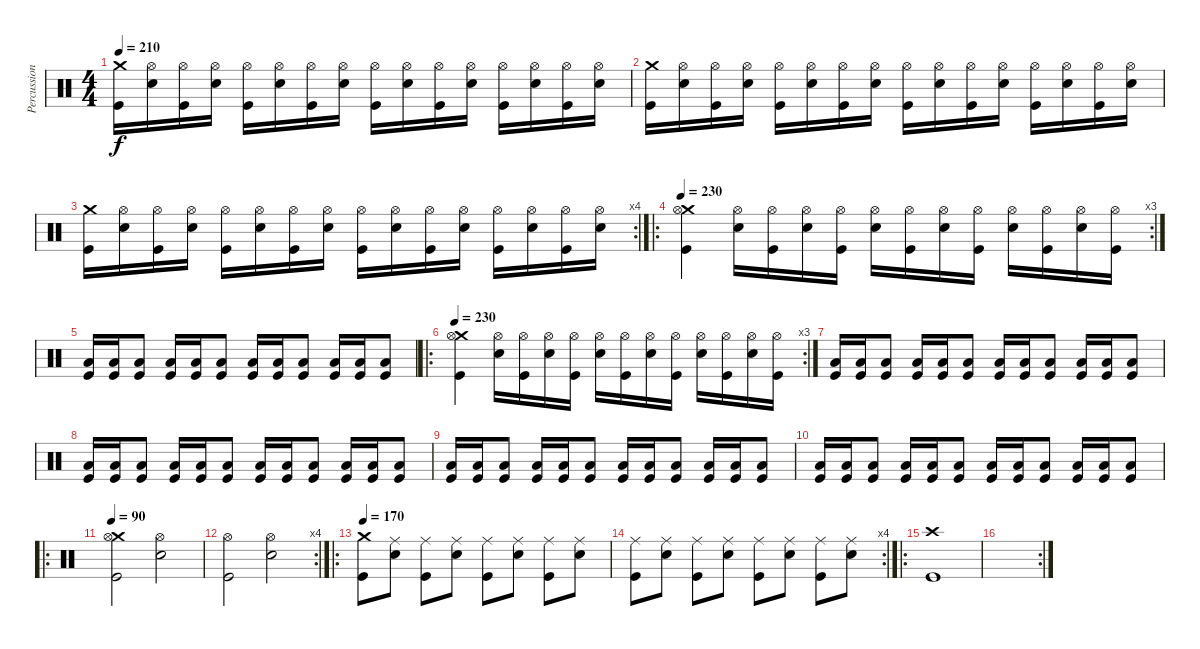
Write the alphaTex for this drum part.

\track ("Percussion" "Percussion") {instrument percussion}
\staff {score}
\articulation defaults
\ts (4 4)
\tempo 210
\clef neutral
\ks c
("Crash medium (hit)" "Kick (hit)").16{dy f} ("Hi-Hat (open)" "Electric Snare (hit)").16 ("Hi-Hat (open)" "Kick (hit)").16 ("Hi-Hat (open)" "Electric Snare (hit)").16 ("Hi-Hat (open)" "Kick (hit)").16 ("Hi-Hat (open)" "Electric Snare (hit)").16 ("Hi-Hat (open)" "Kick (hit)").16 ("Hi-Hat (open)" "Electric Snare (hit)").16 ("Hi-Hat (open)" "Kick (hit)").16 ("Hi-Hat (open)" "Electric Snare (hit)").16 ("Hi-Hat (open)" "Kick (hit)").16 ("Hi-Hat (open)" "Electric Snare (hit)").16 ("Hi-Hat (open)" "Kick (hit)").16 ("Hi-Hat (open)" "Electric Snare (hit)").16 ("Hi-Hat (open)" "Kick (hit)").16 ("Hi-Hat (open)" "Electric Snare (hit)").16 |
("Crash medium (hit)" "Kick (hit)").16 ("Hi-Hat (open)" "Electric Snare (hit)").16 ("Hi-Hat (open)" "Kick (hit)").16 ("Hi-Hat (open)" "Electric Snare (hit)").16 ("Hi-Hat (open)" "Kick (hit)").16 ("Hi-Hat (open)" "Electric Snare (hit)").16 ("Hi-Hat (open)" "Kick (hit)").16 ("Hi-Hat (open)" "Electric Snare (hit)").16 ("Hi-Hat (open)" "Kick (hit)").16 ("Hi-Hat (open)" "Electric Snare (hit)").16 ("Hi-Hat (open)" "Kick (hit)").16 ("Hi-Hat (open)" "Electric Snare (hit)").16 ("Hi-Hat (open)" "Kick (hit)").16 ("Hi-Hat (open)" "Electric Snare (hit)").16 ("Hi-Hat (open)" "Kick (hit)").16 ("Hi-Hat (open)" "Electric Snare (hit)").16 |
\rc 4
("Crash medium (hit)" "Kick (hit)").16 ("Hi-Hat (open)" "Electric Snare (hit)").16 ("Hi-Hat (open)" "Kick (hit)").16 ("Hi-Hat (open)" "Electric Snare (hit)").16 ("Hi-Hat (open)" "Kick (hit)").16 ("Hi-Hat (open)" "Electric Snare (hit)").16 ("Hi-Hat (open)" "Kick (hit)").16 ("Hi-Hat (open)" "Electric Snare (hit)").16 ("Hi-Hat (open)" "Kick (hit)").16 ("Hi-Hat (open)" "Electric Snare (hit)").16 ("Hi-Hat (open)" "Kick (hit)").16 ("Hi-Hat (open)" "Electric Snare (hit)").16 ("Hi-Hat (open)" "Kick (hit)").16 ("Hi-Hat (open)" "Electric Snare (hit)").16 ("Hi-Hat (open)" "Kick (hit)").16 ("Hi-Hat (open)" "Electric Snare (hit)").16 |
\ro
\rc 3
\tempo 230
("Crash medium (hit)" "Hi-Hat (open)" "Kick (hit)").4 ("Hi-Hat (open)" "Electric Snare (hit)").16 ("Hi-Hat (open)" "Kick (hit)").16 ("Hi-Hat (open)" "Electric Snare (hit)").16 ("Hi-Hat (open)" "Kick (hit)").16 ("Hi-Hat (open)" "Electric Snare (hit)").16 ("Hi-Hat (open)" "Kick (hit)").16 ("Hi-Hat (open)" "Electric Snare (hit)").16 ("Hi-Hat (open)" "Kick (hit)").16 ("Hi-Hat (open)" "Electric Snare (hit)").16 ("Hi-Hat (open)" "Kick (hit)").16 ("Hi-Hat (open)" "Electric Snare (hit)").16 ("Hi-Hat (open)" "Kick (hit)").16 |
("Kick (hit)" "Low Floor Tom (hit)").16 ("Kick (hit)" "Low Floor Tom (hit)").16 ("Kick (hit)" "Low Floor Tom (hit)").8 ("Kick (hit)" "Low Floor Tom (hit)").16 ("Kick (hit)" "Low Floor Tom (hit)").16 ("Kick (hit)" "Low Floor Tom (hit)").8 ("Kick (hit)" "Low Floor Tom (hit)").16 ("Kick (hit)" "Low Floor Tom (hit)").16 ("Kick (hit)" "Low Floor Tom (hit)").8 ("Kick (hit)" "Low Floor Tom (hit)").16 ("Kick (hit)" "Low Floor Tom (hit)").16 ("Kick (hit)" "Low Floor Tom (hit)").8 |
\ro
\rc 3
\tempo 230
("Crash medium (hit)" "Hi-Hat (open)" "Kick (hit)").4 ("Hi-Hat (open)" "Electric Snare (hit)").16 ("Hi-Hat (open)" "Kick (hit)").16 ("Hi-Hat (open)" "Electric Snare (hit)").16 ("Hi-Hat (open)" "Kick (hit)").16 ("Hi-Hat (open)" "Electric Snare (hit)").16 ("Hi-Hat (open)" "Kick (hit)").16 ("Hi-Hat (open)" "Electric Snare (hit)").16 ("Hi-Hat (open)" "Kick (hit)").16 ("Hi-Hat (open)" "Electric Snare (hit)").16 ("Hi-Hat (open)" "Kick (hit)").16 ("Hi-Hat (open)" "Electric Snare (hit)").16 ("Hi-Hat (open)" "Kick (hit)").16 |
("Kick (hit)" "Low Floor Tom (hit)").16 ("Kick (hit)" "Low Floor Tom (hit)").16 ("Kick (hit)" "Low Floor Tom (hit)").8 ("Kick (hit)" "Low Floor Tom (hit)").16 ("Kick (hit)" "Low Floor Tom (hit)").16 ("Kick (hit)" "Low Floor Tom (hit)").8 ("Kick (hit)" "Low Floor Tom (hit)").16 ("Kick (hit)" "Low Floor Tom (hit)").16 ("Kick (hit)" "Low Floor Tom (hit)").8 ("Kick (hit)" "Low Floor Tom (hit)").16 ("Kick (hit)" "Low Floor Tom (hit)").16 ("Kick (hit)" "Low Floor Tom (hit)").8 |
("Kick (hit)" "Low Floor Tom (hit)").16 ("Kick (hit)" "Low Floor Tom (hit)").16 ("Kick (hit)" "Low Floor Tom (hit)").8 ("Kick (hit)" "Low Floor Tom (hit)").16 ("Kick (hit)" "Low Floor Tom (hit)").16 ("Kick (hit)" "Low Floor Tom (hit)").8 ("Kick (hit)" "Low Floor Tom (hit)").16 ("Kick (hit)" "Low Floor Tom (hit)").16 ("Kick (hit)" "Low Floor Tom (hit)").8 ("Kick (hit)" "Low Floor Tom (hit)").16 ("Kick (hit)" "Low Floor Tom (hit)").16 ("Kick (hit)" "Low Floor Tom (hit)").8 |
("Kick (hit)" "Low Floor Tom (hit)").16 ("Kick (hit)" "Low Floor Tom (hit)").16 ("Kick (hit)" "Low Floor Tom (hit)").8 ("Kick (hit)" "Low Floor Tom (hit)").16 ("Kick (hit)" "Low Floor Tom (hit)").16 ("Kick (hit)" "Low Floor Tom (hit)").8 ("Kick (hit)" "Low Floor Tom (hit)").16 ("Kick (hit)" "Low Floor Tom (hit)").16 ("Kick (hit)" "Low Floor Tom (hit)").8 ("Kick (hit)" "Low Floor Tom (hit)").16 ("Kick (hit)" "Low Floor Tom (hit)").16 ("Kick (hit)" "Low Floor Tom (hit)").8 |
("Kick (hit)" "Low Floor Tom (hit)").16 ("Kick (hit)" "Low Floor Tom (hit)").16 ("Kick (hit)" "Low Floor Tom (hit)").8 ("Kick (hit)" "Low Floor Tom (hit)").16 ("Kick (hit)" "Low Floor Tom (hit)").16 ("Kick (hit)" "Low Floor Tom (hit)").8 ("Kick (hit)" "Low Floor Tom (hit)").16 ("Kick (hit)" "Low Floor Tom (hit)").16 ("Kick (hit)" "Low Floor Tom (hit)").8 ("Kick (hit)" "Low Floor Tom (hit)").16 ("Kick (hit)" "Low Floor Tom (hit)").16 ("Kick (hit)" "Low Floor Tom (hit)").8 |
\ro
\tempo 90
("Crash medium (hit)" "Hi-Hat (open)" "Kick (hit)").2 ("Electric Snare (hit)" "Hi-Hat (open)").2 |
\rc 4
("Hi-Hat (open)" "Kick (hit)").2 ("Hi-Hat (open)" "Electric Snare (hit)").2 |
\ro
\tempo 170
("Crash medium (hit)" "Kick (hit)").8 ("Ride (middle)" "Electric Snare (hit)").8 ("Ride (middle)" "Kick (hit)").8 ("Ride (middle)" "Electric Snare (hit)").8 ("Ride (middle)" "Kick (hit)").8 ("Ride (middle)" "Electric Snare (hit)").8 ("Ride (middle)" "Kick (hit)").8 ("Ride (middle)" "Electric Snare (hit)").8 |
\rc 4
("Ride (middle)" "Kick (hit)").8 ("Ride (middle)" "Electric Snare (hit)").8 ("Ride (middle)" "Kick (hit)").8 ("Ride (middle)" "Electric Snare (hit)").8 ("Ride (middle)" "Kick (hit)").8 ("Ride (middle)" "Electric Snare (hit)").8 ("Ride (middle)" "Kick (hit)").8 ("Ride (middle)" "Electric Snare (hit)").8 |
\ro
("Crash high (hit)" "Kick (hit)").1 |
\rc 2
